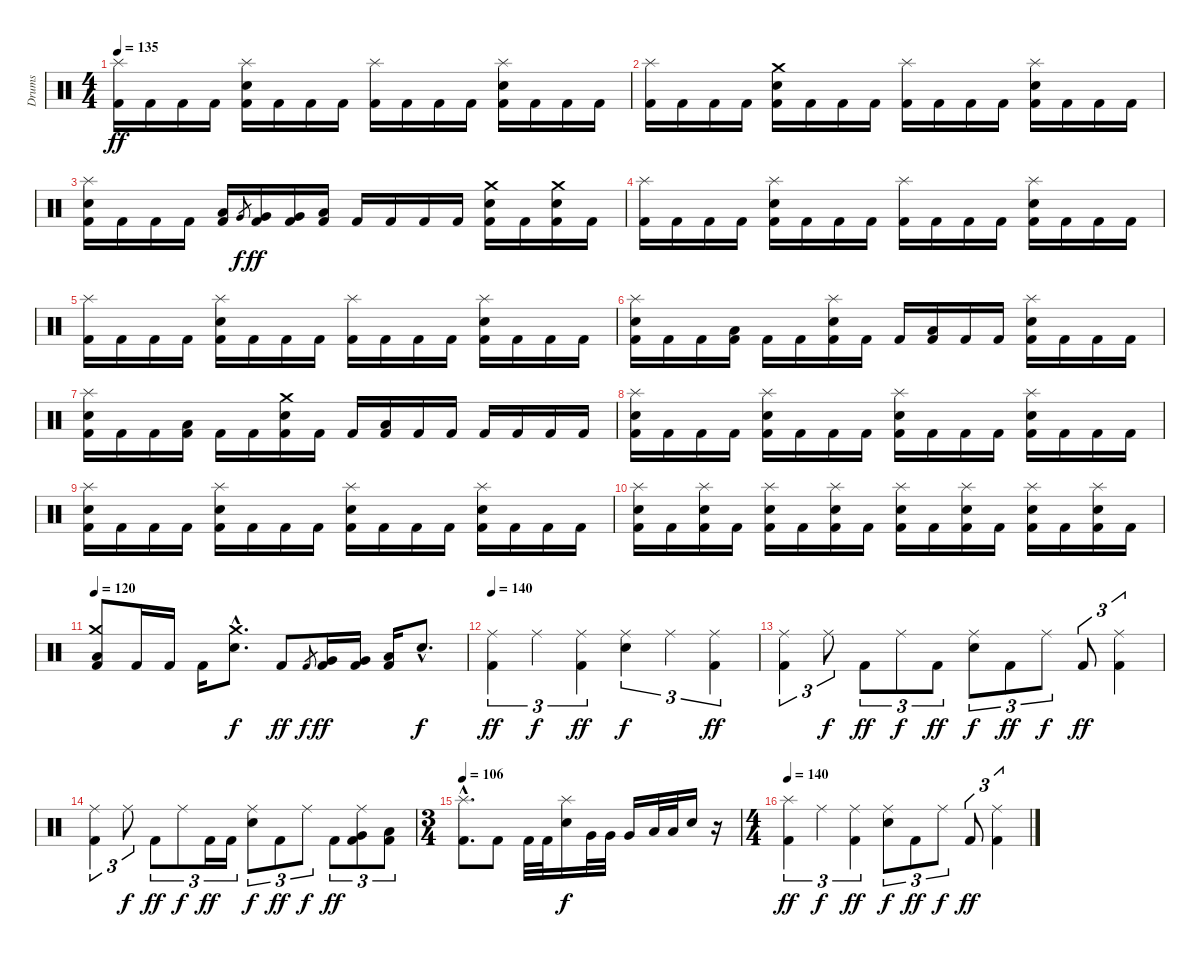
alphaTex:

\track ("Drums" "Drums") {instrument percussion}
\staff {score}
\articulation defaults
\ts (4 4)
\tempo 135
\clef neutral
\ks c
("Splash (hit)" "Kick (hit) 2").16{dy ff} "Kick (hit) 2".16 "Kick (hit) 2".16 "Kick (hit) 2".16 ("Splash (hit)" "Electric Snare (hit)" "Kick (hit) 2").16 "Kick (hit) 2".16 "Kick (hit) 2".16 "Kick (hit) 2".16 ("Splash (hit)" "Kick (hit) 2").16 "Kick (hit) 2".16 "Kick (hit) 2".16 "Kick (hit) 2".16 ("Splash (hit)" "Electric Snare (hit)" "Kick (hit) 2").16 "Kick (hit) 2".16 "Kick (hit) 2".16 "Kick (hit) 2".16 |
("Splash (hit)" "Kick (hit) 2").16 "Kick (hit) 2".16 "Kick (hit) 2".16 "Kick (hit) 2".16 ("Crash medium (hit)" "Electric Snare (hit)" "Kick (hit) 2").16 "Kick (hit) 2".16 "Kick (hit) 2".16 "Kick (hit) 2".16 ("Splash (hit)" "Kick (hit) 2").16 "Kick (hit) 2".16 "Kick (hit) 2".16 "Kick (hit) 2".16 ("Splash (hit)" "Electric Snare (hit)" "Kick (hit) 2").16 "Kick (hit) 2".16 "Kick (hit) 2".16 "Kick (hit) 2".16 |
("Splash (hit)" "Electric Snare (hit)" "Kick (hit) 2").16 "Kick (hit) 2".16 "Kick (hit) 2".16 "Kick (hit) 2".16 ("Low Tom (hit)" "Kick (hit) 2").16 "Very Low Tom (hit)".8{gr dy f} ("Very Low Tom (hit)" "Kick (hit) 2").16{dy ff} ("Very Low Tom (hit)" "Kick (hit) 2").16 ("Low Floor Tom (hit)" "Kick (hit) 2").16 "Kick (hit) 2".16 "Kick (hit) 2".16 "Kick (hit) 2".16 "Kick (hit) 2".16 ("Crash medium (hit)" "Electric Snare (hit)" "Kick (hit) 2").16 "Kick (hit) 2".16 ("Crash medium (hit)" "Electric Snare (hit)" "Kick (hit) 2").16 "Kick (hit) 2".16 |
("Splash (hit)" "Kick (hit) 2").16 "Kick (hit) 2".16 "Kick (hit) 2".16 "Kick (hit) 2".16 ("Splash (hit)" "Electric Snare (hit)" "Kick (hit) 2").16 "Kick (hit) 2".16 "Kick (hit) 2".16 "Kick (hit) 2".16 ("Splash (hit)" "Kick (hit) 2").16 "Kick (hit) 2".16 "Kick (hit) 2".16 "Kick (hit) 2".16 ("Splash (hit)" "Electric Snare (hit)" "Kick (hit) 2").16 "Kick (hit) 2".16 "Kick (hit) 2".16 "Kick (hit) 2".16 |
("Splash (hit)" "Kick (hit) 2").16 "Kick (hit) 2".16 "Kick (hit) 2".16 "Kick (hit) 2".16 ("Splash (hit)" "Electric Snare (hit)" "Kick (hit) 2").16 "Kick (hit) 2".16 "Kick (hit) 2".16 "Kick (hit) 2".16 ("Splash (hit)" "Kick (hit) 2").16 "Kick (hit) 2".16 "Kick (hit) 2".16 "Kick (hit) 2".16 ("Splash (hit)" "Electric Snare (hit)" "Kick (hit) 2").16 "Kick (hit) 2".16 "Kick (hit) 2".16 "Kick (hit) 2".16 |
("Splash (hit)" "Electric Snare (hit)" "Kick (hit) 2").16 "Kick (hit) 2".16 "Kick (hit) 2".16 ("Low Floor Tom (hit)" "Kick (hit) 2").16 "Kick (hit) 2".16 "Kick (hit) 2".16 ("Splash (hit)" "Electric Snare (hit)" "Kick (hit) 2").16 "Kick (hit) 2".16 "Kick (hit) 2".16 ("Low Floor Tom (hit)" "Kick (hit) 2").16 "Kick (hit) 2".16 "Kick (hit) 2".16 ("Splash (hit)" "Electric Snare (hit)" "Kick (hit) 2").16 "Kick (hit) 2".16 "Kick (hit) 2".16 "Kick (hit) 2".16 |
("Splash (hit)" "Electric Snare (hit)" "Kick (hit) 2").16 "Kick (hit) 2".16 "Kick (hit) 2".16 ("Low Floor Tom (hit)" "Kick (hit) 2").16 "Kick (hit) 2".16 "Kick (hit) 2".16 ("Crash medium (hit)" "Electric Snare (hit)" "Kick (hit) 2").16 "Kick (hit) 2".16 "Kick (hit) 2".16 ("Low Floor Tom (hit)" "Kick (hit) 2").16 "Kick (hit) 2".16 "Kick (hit) 2".16 "Kick (hit) 2".16 "Kick (hit) 2".16 "Kick (hit) 2".16 "Kick (hit) 2".16 |
("Splash (hit)" "Electric Snare (hit)" "Kick (hit) 2").16 "Kick (hit) 2".16 "Kick (hit) 2".16 "Kick (hit) 2".16 ("Splash (hit)" "Electric Snare (hit)" "Kick (hit) 2").16 "Kick (hit) 2".16 "Kick (hit) 2".16 "Kick (hit) 2".16 ("Splash (hit)" "Electric Snare (hit)" "Kick (hit) 2").16 "Kick (hit) 2".16 "Kick (hit) 2".16 "Kick (hit) 2".16 ("Splash (hit)" "Electric Snare (hit)" "Kick (hit) 2").16 "Kick (hit) 2".16 "Kick (hit) 2".16 "Kick (hit) 2".16 |
("Splash (hit)" "Electric Snare (hit)" "Kick (hit) 2").16 "Kick (hit) 2".16 "Kick (hit) 2".16 "Kick (hit) 2".16 ("Splash (hit)" "Electric Snare (hit)" "Kick (hit) 2").16 "Kick (hit) 2".16 "Kick (hit) 2".16 "Kick (hit) 2".16 ("Splash (hit)" "Electric Snare (hit)" "Kick (hit) 2").16 "Kick (hit) 2".16 "Kick (hit) 2".16 "Kick (hit) 2".16 ("Splash (hit)" "Electric Snare (hit)" "Kick (hit) 2").16 "Kick (hit) 2".16 "Kick (hit) 2".16 "Kick (hit) 2".16 |
("Splash (hit)" "Electric Snare (hit)" "Kick (hit) 2").16 "Kick (hit) 2".16 ("Splash (hit)" "Electric Snare (hit)" "Kick (hit) 2").16 "Kick (hit) 2".16 ("Splash (hit)" "Electric Snare (hit)" "Kick (hit) 2").16 "Kick (hit) 2".16 ("Splash (hit)" "Electric Snare (hit)" "Kick (hit) 2").16 "Kick (hit) 2".16 ("Splash (hit)" "Electric Snare (hit)" "Kick (hit) 2").16 "Kick (hit) 2".16 ("Splash (hit)" "Electric Snare (hit)" "Kick (hit) 2").16 "Kick (hit) 2".16 ("Splash (hit)" "Electric Snare (hit)" "Kick (hit) 2").16 "Kick (hit) 2".16 ("Splash (hit)" "Electric Snare (hit)" "Kick (hit) 2").16 "Kick (hit) 2".16 |
\tempo 120
("Crash medium (hit)" "Low Floor Tom (hit)" "Kick (hit) 2").8 "Kick (hit) 2".16 "Kick (hit) 2".16 "Kick (hit) 2".16 ("Crash medium (hit)"{hac} "Electric Snare (hit)"{hac}).8{d dy f} "Kick (hit) 2".8{dy ff} "Kick (hit) 2".8{gr dy f} ("Very Low Tom (hit)" "Kick (hit) 2").16{dy ff} ("Very Low Tom (hit)" "Kick (hit) 2").16 ("Low Floor Tom (hit)" "Kick (hit) 2").16 "Electric Snare (hit)"{hac}.8{d dy f} |
\tempo 140
("Ride (middle)" "Kick (hit) 2").4{tu (3 2) dy ff} "Ride (middle)".4{tu (3 2) dy f} ("Ride (middle)" "Kick (hit) 2").4{tu (3 2) dy ff} ("Ride (middle)" "Electric Snare (hit)").4{tu (3 2) dy f} "Ride (middle)".4{tu (3 2)} ("Ride (middle)" "Kick (hit) 2").4{tu (3 2) dy ff} |
("Ride (middle)" "Kick (hit) 2").4{tu (3 2)} "Ride (middle)".8{tu (3 2) dy f} "Kick (hit) 2".8{tu (3 2) dy ff} "Ride (middle)".8{tu (3 2) dy f} "Kick (hit) 2".8{tu (3 2) dy ff} ("Ride (middle)" "Electric Snare (hit)").8{tu (3 2) dy f} "Kick (hit) 2".8{tu (3 2) dy ff} "Ride (middle)".8{tu (3 2) dy f} "Kick (hit) 2".8{tu (3 2) dy ff} ("Ride (middle)" "Kick (hit) 2").4{tu (3 2)} |
("Ride (middle)" "Kick (hit) 2").4{tu (3 2)} "Ride (middle)".8{tu (3 2) dy f} "Kick (hit) 2".8{tu (3 2) dy ff} "Ride (middle)".8{tu (3 2) dy f} "Kick (hit) 2".16{tu (3 2) dy ff} "Kick (hit) 2".16{tu (3 2)} ("Ride (middle)" "Electric Snare (hit)").8{tu (3 2) dy f} "Kick (hit) 2".8{tu (3 2) dy ff} "Ride (middle)".8{tu (3 2) dy f} "Kick (hit) 2".8{tu (3 2) dy ff} ("Ride (middle)" "Very Low Tom (hit)" "Kick (hit) 2").8{tu (3 2)} ("Low Floor Tom (hit)" "Kick (hit) 2").8{tu (3 2)} |
\ts (3 4)
\tempo 106
("Splash (hit)"{hac} "Kick (hit) 2"{hac}).8{d} "Kick (hit) 2".8 "Kick (hit) 2".32 "Kick (hit) 2".32 ("Splash (hit)" "Electric Snare (hit)").16{dy f} "Very Low Tom (hit)".32 "Very Low Tom (hit)".32 "Very Low Tom (hit)".16 "Low Floor Tom (hit)".32 "Low Floor Tom (hit)".32 "Electric Snare (hit)".16 r.16 |
\ts (4 4)
\tempo 140
("Splash (hit)" "Kick (hit) 2").4{tu (3 2) dy ff} "Ride (middle)".4{tu (3 2) dy f} ("Ride (middle)" "Kick (hit) 2").4{tu (3 2) dy ff} ("Ride (middle)" "Electric Snare (hit)").8{tu (3 2) dy f} "Kick (hit) 2".8{tu (3 2) dy ff} "Ride (middle)".8{tu (3 2) dy f} "Kick (hit) 2".8{tu (3 2) dy ff} ("Ride (middle)" "Kick (hit) 2").4{tu (3 2)}
